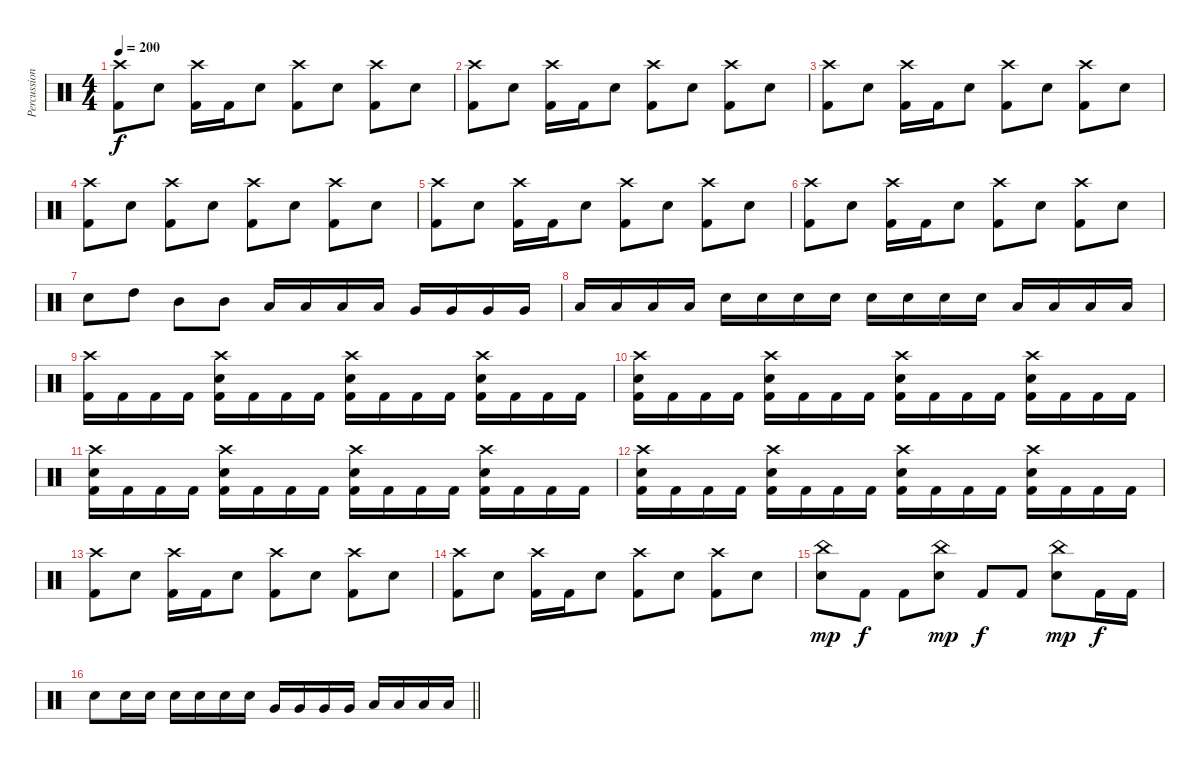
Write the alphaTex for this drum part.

\track ("Percussion" "Percussion") {instrument percussion}
\staff {score}
\articulation defaults
\ts (4 4)
\section ("" "")
\tempo 200
\clef neutral
\ks c
("Crash high (hit)" "Kick (hit) 2").8{dy f} "Electric Snare (hit)".8 ("Crash high (hit)" "Kick (hit) 2").16 "Kick (hit) 2".16 "Electric Snare (hit)".8 ("Crash high (hit)" "Kick (hit) 2").8 "Electric Snare (hit)".8 ("Crash high (hit)" "Kick (hit) 2").8 "Electric Snare (hit)".8 |
("Crash high (hit)" "Kick (hit) 2").8 "Electric Snare (hit)".8 ("Crash high (hit)" "Kick (hit) 2").16 "Kick (hit) 2".16 "Electric Snare (hit)".8 ("Crash high (hit)" "Kick (hit) 2").8 "Electric Snare (hit)".8 ("Crash high (hit)" "Kick (hit) 2").8 "Electric Snare (hit)".8 |
("Crash high (hit)" "Kick (hit) 2").8 "Electric Snare (hit)".8 ("Crash high (hit)" "Kick (hit) 2").16 "Kick (hit) 2".16 "Electric Snare (hit)".8 ("Crash high (hit)" "Kick (hit) 2").8 "Electric Snare (hit)".8 ("Crash high (hit)" "Kick (hit) 2").8 "Electric Snare (hit)".8 |
("Crash high (hit)" "Kick (hit) 2").8 "Electric Snare (hit)".8 ("Crash high (hit)" "Kick (hit) 2").8 "Electric Snare (hit)".8 ("Crash high (hit)" "Kick (hit) 2").8 "Electric Snare (hit)".8 ("Crash high (hit)" "Kick (hit) 2").8 "Electric Snare (hit)".8 |
("Crash high (hit)" "Kick (hit) 2").8 "Electric Snare (hit)".8 ("Crash high (hit)" "Kick (hit) 2").16 "Kick (hit) 2".16 "Electric Snare (hit)".8 ("Crash high (hit)" "Kick (hit) 2").8 "Electric Snare (hit)".8 ("Crash high (hit)" "Kick (hit) 2").8 "Electric Snare (hit)".8 |
("Crash high (hit)" "Kick (hit) 2").8 "Electric Snare (hit)".8 ("Crash high (hit)" "Kick (hit) 2").16 "Kick (hit) 2".16 "Electric Snare (hit)".8 ("Crash high (hit)" "Kick (hit) 2").8 "Electric Snare (hit)".8 ("Crash high (hit)" "Kick (hit) 2").8 "Electric Snare (hit)".8 |
"Electric Snare (hit)".8 "High Tom (hit)".8 "Mid Tom (hit)".8 "Mid Tom (hit)".8 "Low Tom (hit)".16 "Low Tom (hit)".16 "Low Tom (hit)".16 "Low Tom (hit)".16 "Very Low Tom (hit)".16 "Very Low Tom (hit)".16 "Very Low Tom (hit)".16 "Very Low Tom (hit)".16 |
"Low Floor Tom (hit)".16 "Low Floor Tom (hit)".16 "Low Floor Tom (hit)".16 "Low Floor Tom (hit)".16 "Electric Snare (hit)".16 "Electric Snare (hit)".16 "Electric Snare (hit)".16 "Electric Snare (hit)".16 "Electric Snare (hit)".16 "Electric Snare (hit)".16 "Electric Snare (hit)".16 "Electric Snare (hit)".16 "Low Floor Tom (hit)".16 "Low Floor Tom (hit)".16 "Low Floor Tom (hit)".16 "Low Floor Tom (hit)".16 |
("Crash high (hit)" "Kick (hit) 2").16 "Kick (hit) 2".16 "Kick (hit) 2".16 "Kick (hit) 2".16 ("Crash high (hit)" "Electric Snare (hit)" "Kick (hit) 2").16 "Kick (hit) 2".16 "Kick (hit) 2".16 "Kick (hit) 2".16 ("Crash high (hit)" "Electric Snare (hit)" "Kick (hit) 2").16 "Kick (hit) 2".16 "Kick (hit) 2".16 "Kick (hit) 2".16 ("Crash high (hit)" "Electric Snare (hit)" "Kick (hit) 2").16 "Kick (hit) 2".16 "Kick (hit) 2".16 "Kick (hit) 2".16 |
("Crash high (hit)" "Electric Snare (hit)" "Kick (hit) 2").16 "Kick (hit) 2".16 "Kick (hit) 2".16 "Kick (hit) 2".16 ("Crash high (hit)" "Electric Snare (hit)" "Kick (hit) 2").16 "Kick (hit) 2".16 "Kick (hit) 2".16 "Kick (hit) 2".16 ("Crash high (hit)" "Electric Snare (hit)" "Kick (hit) 2").16 "Kick (hit) 2".16 "Kick (hit) 2".16 "Kick (hit) 2".16 ("Crash high (hit)" "Electric Snare (hit)" "Kick (hit) 2").16 "Kick (hit) 2".16 "Kick (hit) 2".16 "Kick (hit) 2".16 |
("Crash high (hit)" "Electric Snare (hit)" "Kick (hit) 2").16 "Kick (hit) 2".16 "Kick (hit) 2".16 "Kick (hit) 2".16 ("Crash high (hit)" "Electric Snare (hit)" "Kick (hit) 2").16 "Kick (hit) 2".16 "Kick (hit) 2".16 "Kick (hit) 2".16 ("Crash high (hit)" "Electric Snare (hit)" "Kick (hit) 2").16 "Kick (hit) 2".16 "Kick (hit) 2".16 "Kick (hit) 2".16 ("Crash high (hit)" "Electric Snare (hit)" "Kick (hit) 2").16 "Kick (hit) 2".16 "Kick (hit) 2".16 "Kick (hit) 2".16 |
("Crash high (hit)" "Electric Snare (hit)" "Kick (hit) 2").16 "Kick (hit) 2".16 "Kick (hit) 2".16 "Kick (hit) 2".16 ("Crash high (hit)" "Electric Snare (hit)" "Kick (hit) 2").16 "Kick (hit) 2".16 "Kick (hit) 2".16 "Kick (hit) 2".16 ("Crash high (hit)" "Electric Snare (hit)" "Kick (hit) 2").16 "Kick (hit) 2".16 "Kick (hit) 2".16 "Kick (hit) 2".16 ("Crash high (hit)" "Electric Snare (hit)" "Kick (hit) 2").16 "Kick (hit) 2".16 "Kick (hit) 2".16 "Kick (hit) 2".16 |
("Crash high (hit)" "Kick (hit) 2").8 "Electric Snare (hit)".8 ("Crash high (hit)" "Kick (hit) 2").16 "Kick (hit) 2".16 "Electric Snare (hit)".8 ("Crash high (hit)" "Kick (hit) 2").8 "Electric Snare (hit)".8 ("Crash high (hit)" "Kick (hit) 2").8 "Electric Snare (hit)".8 |
("Crash high (hit)" "Kick (hit) 2").8 "Electric Snare (hit)".8 ("Crash high (hit)" "Kick (hit) 2").16 "Kick (hit) 2".16 "Electric Snare (hit)".8 ("Crash high (hit)" "Kick (hit) 2").8 "Electric Snare (hit)".8 ("Crash high (hit)" "Kick (hit) 2").8 "Electric Snare (hit)".8 |
("China (hit)" "Electric Snare (hit)").8{dy mp} "Kick (hit) 2".8{dy f} "Kick (hit) 2".8 ("China (hit)" "Electric Snare (hit)").8{dy mp} "Kick (hit) 2".8{dy f} "Kick (hit) 2".8 ("China (hit)" "Electric Snare (hit)").8{dy mp} "Kick (hit) 2".16{dy f} "Kick (hit) 2".16 |
\barLineRight lightlight "Electric Snare (hit)".8 "Electric Snare (hit)".16 "Electric Snare (hit)".16 "Electric Snare (hit)".16 "Electric Snare (hit)".16 "Electric Snare (hit)".16 "Electric Snare (hit)".16 "Very Low Tom (hit)".16 "Very Low Tom (hit)".16 "Very Low Tom (hit)".16 "Very Low Tom (hit)".16 "Low Floor Tom (hit)".16 "Low Floor Tom (hit)".16 "Low Floor Tom (hit)".16 "Low Floor Tom (hit)".16
